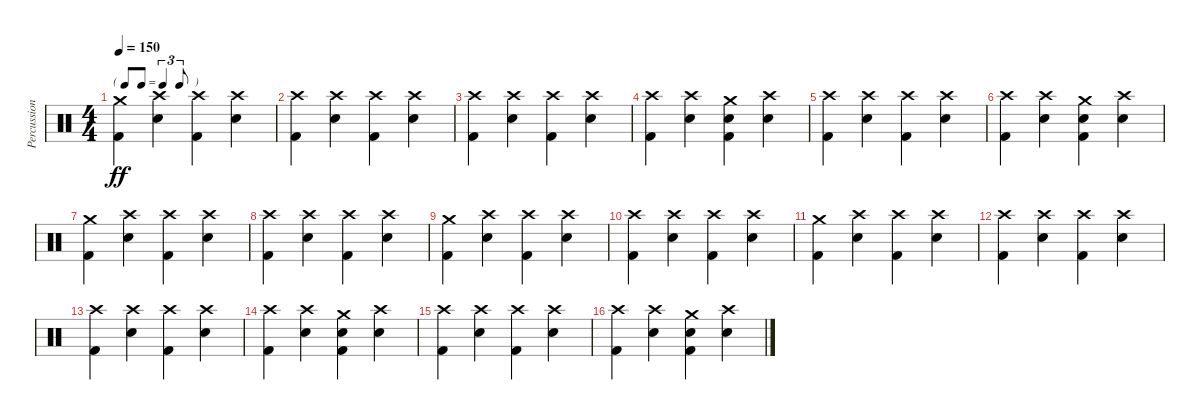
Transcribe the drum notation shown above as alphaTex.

\track ("Percussion" "Percussion") {instrument percussion}
\staff {score}
\articulation defaults
\ts (4 4)
\tf triplet8th
\tempo 150
\clef neutral
\ks c
("Crash medium (hit)" "Kick (hit) 2").4{dy ff} ("Crash high (hit)" "Electric Snare (hit)").4 ("Crash high (hit)" "Kick (hit) 2").4 ("Crash high (hit)" "Electric Snare (hit)").4 |
("Crash high (hit)" "Kick (hit) 2").4 ("Crash high (hit)" "Electric Snare (hit)").4 ("Crash high (hit)" "Kick (hit) 2").4 ("Crash high (hit)" "Electric Snare (hit)").4 |
("Crash high (hit)" "Kick (hit) 2").4 ("Crash high (hit)" "Electric Snare (hit)").4 ("Crash high (hit)" "Kick (hit) 2").4 ("Crash high (hit)" "Electric Snare (hit)").4 |
("Crash high (hit)" "Kick (hit) 2").4 ("Crash high (hit)" "Electric Snare (hit)").4 ("Crash medium (hit)" "Electric Snare (hit)" "Kick (hit) 2").4 ("Crash high (hit)" "Electric Snare (hit)").4 |
("Crash high (hit)" "Kick (hit) 2").4 ("Crash high (hit)" "Electric Snare (hit)").4 ("Crash high (hit)" "Kick (hit) 2").4 ("Crash high (hit)" "Electric Snare (hit)").4 |
("Crash high (hit)" "Kick (hit) 2").4 ("Crash high (hit)" "Electric Snare (hit)").4 ("Crash medium (hit)" "Electric Snare (hit)" "Kick (hit) 2").4 ("Crash high (hit)" "Electric Snare (hit)").4 |
("Crash medium (hit)" "Kick (hit) 2").4 ("Crash high (hit)" "Electric Snare (hit)").4 ("Crash high (hit)" "Kick (hit) 2").4 ("Crash high (hit)" "Electric Snare (hit)").4 |
("Crash high (hit)" "Kick (hit) 2").4 ("Crash high (hit)" "Electric Snare (hit)").4 ("Crash high (hit)" "Kick (hit) 2").4 ("Crash high (hit)" "Electric Snare (hit)").4 |
("Crash medium (hit)" "Kick (hit) 2").4 ("Crash high (hit)" "Electric Snare (hit)").4 ("Crash high (hit)" "Kick (hit) 2").4 ("Crash high (hit)" "Electric Snare (hit)").4 |
("Crash high (hit)" "Kick (hit) 2").4 ("Crash high (hit)" "Electric Snare (hit)").4 ("Crash high (hit)" "Kick (hit) 2").4 ("Crash high (hit)" "Electric Snare (hit)").4 |
("Crash medium (hit)" "Kick (hit) 2").4 ("Crash high (hit)" "Electric Snare (hit)").4 ("Crash high (hit)" "Kick (hit) 2").4 ("Crash high (hit)" "Electric Snare (hit)").4 |
("Crash high (hit)" "Kick (hit) 2").4 ("Crash high (hit)" "Electric Snare (hit)").4 ("Crash high (hit)" "Kick (hit) 2").4 ("Crash high (hit)" "Electric Snare (hit)").4 |
("Crash high (hit)" "Kick (hit) 2").4 ("Crash high (hit)" "Electric Snare (hit)").4 ("Crash high (hit)" "Kick (hit) 2").4 ("Crash high (hit)" "Electric Snare (hit)").4 |
("Crash high (hit)" "Kick (hit) 2").4 ("Crash high (hit)" "Electric Snare (hit)").4 ("Crash medium (hit)" "Electric Snare (hit)" "Kick (hit) 2").4 ("Crash high (hit)" "Electric Snare (hit)").4 |
("Crash high (hit)" "Kick (hit) 2").4 ("Crash high (hit)" "Electric Snare (hit)").4 ("Crash high (hit)" "Kick (hit) 2").4 ("Crash high (hit)" "Electric Snare (hit)").4 |
("Crash high (hit)" "Kick (hit) 2").4 ("Crash high (hit)" "Electric Snare (hit)").4 ("Crash medium (hit)" "Electric Snare (hit)" "Kick (hit) 2").4 ("Crash high (hit)" "Electric Snare (hit)").4
